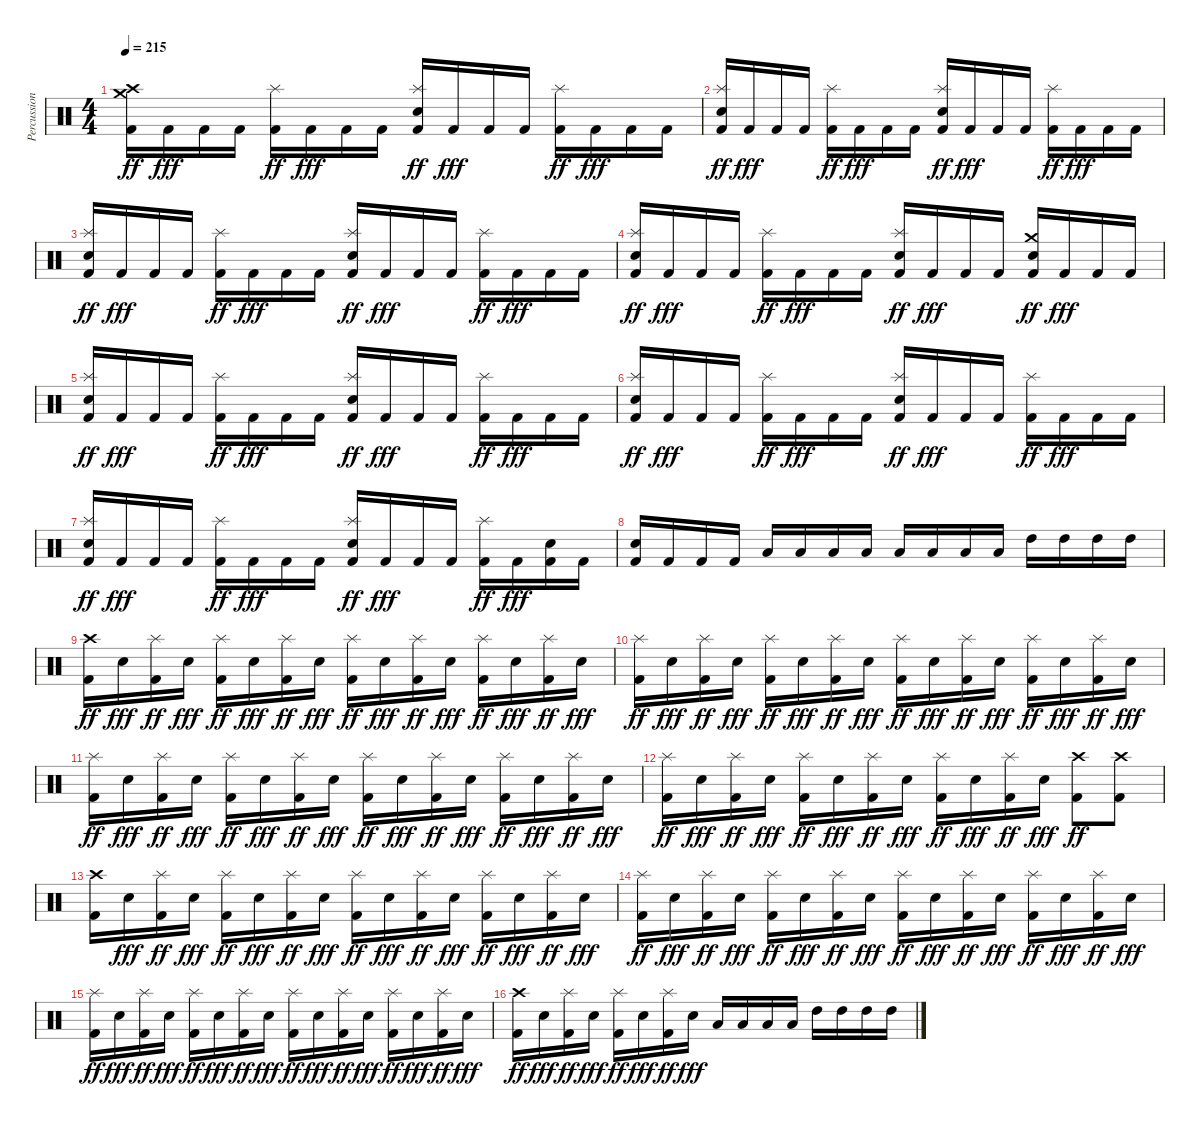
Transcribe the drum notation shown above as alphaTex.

\track ("Percussion" "Percussion") {instrument percussion}
\staff {score}
\articulation defaults
\ts (4 4)
\tempo 215
\clef neutral
\ks c
("Kick (hit) 2" "Crash high (hit)" "Crash medium (hit)").16{dy ff} "Kick (hit) 2".16{dy fff} "Kick (hit) 2".16 "Kick (hit) 2".16 ("Kick (hit) 2" "Splash (hit)").16{dy ff} "Kick (hit) 2".16{dy fff} "Kick (hit) 2".16 "Kick (hit) 2".16 ("Kick (hit) 2" "Electric Snare (hit)" "Splash (hit)").16{dy ff} "Kick (hit) 2".16{dy fff} "Kick (hit) 2".16 "Kick (hit) 2".16 ("Kick (hit) 2" "Splash (hit)").16{dy ff} "Kick (hit) 2".16{dy fff} "Kick (hit) 2".16 "Kick (hit) 2".16 |
("Kick (hit) 2" "Electric Snare (hit)" "Splash (hit)").16{dy ff} "Kick (hit) 2".16{dy fff} "Kick (hit) 2".16 "Kick (hit) 2".16 ("Kick (hit) 2" "Splash (hit)").16{dy ff} "Kick (hit) 2".16{dy fff} "Kick (hit) 2".16 "Kick (hit) 2".16 ("Kick (hit) 2" "Electric Snare (hit)" "Splash (hit)").16{dy ff} "Kick (hit) 2".16{dy fff} "Kick (hit) 2".16 "Kick (hit) 2".16 ("Kick (hit) 2" "Splash (hit)").16{dy ff} "Kick (hit) 2".16{dy fff} "Kick (hit) 2".16 "Kick (hit) 2".16 |
("Kick (hit) 2" "Electric Snare (hit)" "Splash (hit)").16{dy ff} "Kick (hit) 2".16{dy fff} "Kick (hit) 2".16 "Kick (hit) 2".16 ("Kick (hit) 2" "Splash (hit)").16{dy ff} "Kick (hit) 2".16{dy fff} "Kick (hit) 2".16 "Kick (hit) 2".16 ("Kick (hit) 2" "Electric Snare (hit)" "Splash (hit)").16{dy ff} "Kick (hit) 2".16{dy fff} "Kick (hit) 2".16 "Kick (hit) 2".16 ("Kick (hit) 2" "Splash (hit)").16{dy ff} "Kick (hit) 2".16{dy fff} "Kick (hit) 2".16 "Kick (hit) 2".16 |
("Kick (hit) 2" "Electric Snare (hit)" "Splash (hit)").16{dy ff} "Kick (hit) 2".16{dy fff} "Kick (hit) 2".16 "Kick (hit) 2".16 ("Kick (hit) 2" "Splash (hit)").16{dy ff} "Kick (hit) 2".16{dy fff} "Kick (hit) 2".16 "Kick (hit) 2".16 ("Kick (hit) 2" "Electric Snare (hit)" "Splash (hit)").16{dy ff} "Kick (hit) 2".16{dy fff} "Kick (hit) 2".16 "Kick (hit) 2".16 ("Kick (hit) 2" "Electric Snare (hit)" "Crash medium (hit)").16{dy ff} "Kick (hit) 2".16{dy fff} "Kick (hit) 2".16 "Kick (hit) 2".16 |
("Kick (hit) 2" "Electric Snare (hit)" "Splash (hit)").16{dy ff} "Kick (hit) 2".16{dy fff} "Kick (hit) 2".16 "Kick (hit) 2".16 ("Kick (hit) 2" "Splash (hit)").16{dy ff} "Kick (hit) 2".16{dy fff} "Kick (hit) 2".16 "Kick (hit) 2".16 ("Kick (hit) 2" "Electric Snare (hit)" "Splash (hit)").16{dy ff} "Kick (hit) 2".16{dy fff} "Kick (hit) 2".16 "Kick (hit) 2".16 ("Kick (hit) 2" "Splash (hit)").16{dy ff} "Kick (hit) 2".16{dy fff} "Kick (hit) 2".16 "Kick (hit) 2".16 |
("Kick (hit) 2" "Electric Snare (hit)" "Splash (hit)").16{dy ff} "Kick (hit) 2".16{dy fff} "Kick (hit) 2".16 "Kick (hit) 2".16 ("Kick (hit) 2" "Splash (hit)").16{dy ff} "Kick (hit) 2".16{dy fff} "Kick (hit) 2".16 "Kick (hit) 2".16 ("Kick (hit) 2" "Electric Snare (hit)" "Splash (hit)").16{dy ff} "Kick (hit) 2".16{dy fff} "Kick (hit) 2".16 "Kick (hit) 2".16 ("Kick (hit) 2" "Splash (hit)").16{dy ff} "Kick (hit) 2".16{dy fff} "Kick (hit) 2".16 "Kick (hit) 2".16 |
("Kick (hit) 2" "Electric Snare (hit)" "Splash (hit)").16{dy ff} "Kick (hit) 2".16{dy fff} "Kick (hit) 2".16 "Kick (hit) 2".16 ("Kick (hit) 2" "Splash (hit)").16{dy ff} "Kick (hit) 2".16{dy fff} "Kick (hit) 2".16 "Kick (hit) 2".16 ("Kick (hit) 2" "Electric Snare (hit)" "Splash (hit)").16{dy ff} "Kick (hit) 2".16{dy fff} "Kick (hit) 2".16 "Kick (hit) 2".16 ("Kick (hit) 2" "Splash (hit)").16{dy ff} "Kick (hit) 2".16{dy fff} ("Kick (hit) 2" "Electric Snare (hit)").16 "Kick (hit) 2".16 |
("Kick (hit) 2" "Electric Snare (hit)").16 "Kick (hit) 2".16 "Kick (hit) 2".16 "Kick (hit) 2".16 "Low Tom (hit)".16 "Low Tom (hit)".16 "Low Tom (hit)".16 "Low Tom (hit)".16 "Low Floor Tom (hit)".16 "Low Floor Tom (hit)".16 "Low Floor Tom (hit)".16 "Low Floor Tom (hit)".16 "High Tom (hit)".16 "High Tom (hit)".16 "High Tom (hit)".16 "High Tom (hit)".16 |
("Kick (hit) 2" "Crash high (hit)").16{dy ff} "Electric Snare (hit)".16{dy fff} ("Kick (hit) 2" "Splash (hit)").16{dy ff} "Electric Snare (hit)".16{dy fff} ("Kick (hit) 2" "Splash (hit)").16{dy ff} "Electric Snare (hit)".16{dy fff} ("Kick (hit) 2" "Splash (hit)").16{dy ff} "Electric Snare (hit)".16{dy fff} ("Kick (hit) 2" "Splash (hit)").16{dy ff} "Electric Snare (hit)".16{dy fff} ("Kick (hit) 2" "Splash (hit)").16{dy ff} "Electric Snare (hit)".16{dy fff} ("Kick (hit) 2" "Splash (hit)").16{dy ff} "Electric Snare (hit)".16{dy fff} ("Kick (hit) 2" "Splash (hit)").16{dy ff} "Electric Snare (hit)".16{dy fff} |
("Kick (hit) 2" "Splash (hit)").16{dy ff} "Electric Snare (hit)".16{dy fff} ("Kick (hit) 2" "Splash (hit)").16{dy ff} "Electric Snare (hit)".16{dy fff} ("Kick (hit) 2" "Splash (hit)").16{dy ff} "Electric Snare (hit)".16{dy fff} ("Kick (hit) 2" "Splash (hit)").16{dy ff} "Electric Snare (hit)".16{dy fff} ("Kick (hit) 2" "Splash (hit)").16{dy ff} "Electric Snare (hit)".16{dy fff} ("Kick (hit) 2" "Splash (hit)").16{dy ff} "Electric Snare (hit)".16{dy fff} ("Kick (hit) 2" "Splash (hit)").16{dy ff} "Electric Snare (hit)".16{dy fff} ("Kick (hit) 2" "Splash (hit)").16{dy ff} "Electric Snare (hit)".16{dy fff} |
("Kick (hit) 2" "Splash (hit)").16{dy ff} "Electric Snare (hit)".16{dy fff} ("Kick (hit) 2" "Splash (hit)").16{dy ff} "Electric Snare (hit)".16{dy fff} ("Kick (hit) 2" "Splash (hit)").16{dy ff} "Electric Snare (hit)".16{dy fff} ("Kick (hit) 2" "Splash (hit)").16{dy ff} "Electric Snare (hit)".16{dy fff} ("Kick (hit) 2" "Splash (hit)").16{dy ff} "Electric Snare (hit)".16{dy fff} ("Kick (hit) 2" "Splash (hit)").16{dy ff} "Electric Snare (hit)".16{dy fff} ("Kick (hit) 2" "Splash (hit)").16{dy ff} "Electric Snare (hit)".16{dy fff} ("Kick (hit) 2" "Splash (hit)").16{dy ff} "Electric Snare (hit)".16{dy fff} |
("Kick (hit) 2" "Splash (hit)").16{dy ff} "Electric Snare (hit)".16{dy fff} ("Kick (hit) 2" "Splash (hit)").16{dy ff} "Electric Snare (hit)".16{dy fff} ("Kick (hit) 2" "Splash (hit)").16{dy ff} "Electric Snare (hit)".16{dy fff} ("Kick (hit) 2" "Splash (hit)").16{dy ff} "Electric Snare (hit)".16{dy fff} ("Kick (hit) 2" "Splash (hit)").16{dy ff} "Electric Snare (hit)".16{dy fff} ("Kick (hit) 2" "Splash (hit)").16{dy ff} "Electric Snare (hit)".16{dy fff} ("Kick (hit) 2" "Crash high (hit)").8{dy ff} ("Kick (hit) 2" "Crash high (hit)").8 |
("Kick (hit) 2" "Crash high (hit)").16 "Electric Snare (hit)".16{dy fff} ("Kick (hit) 2" "Splash (hit)").16{dy ff} "Electric Snare (hit)".16{dy fff} ("Kick (hit) 2" "Splash (hit)").16{dy ff} "Electric Snare (hit)".16{dy fff} ("Kick (hit) 2" "Splash (hit)").16{dy ff} "Electric Snare (hit)".16{dy fff} ("Kick (hit) 2" "Splash (hit)").16{dy ff} "Electric Snare (hit)".16{dy fff} ("Kick (hit) 2" "Splash (hit)").16{dy ff} "Electric Snare (hit)".16{dy fff} ("Kick (hit) 2" "Splash (hit)").16{dy ff} "Electric Snare (hit)".16{dy fff} ("Kick (hit) 2" "Splash (hit)").16{dy ff} "Electric Snare (hit)".16{dy fff} |
("Kick (hit) 2" "Splash (hit)").16{dy ff} "Electric Snare (hit)".16{dy fff} ("Kick (hit) 2" "Splash (hit)").16{dy ff} "Electric Snare (hit)".16{dy fff} ("Kick (hit) 2" "Splash (hit)").16{dy ff} "Electric Snare (hit)".16{dy fff} ("Kick (hit) 2" "Splash (hit)").16{dy ff} "Electric Snare (hit)".16{dy fff} ("Kick (hit) 2" "Splash (hit)").16{dy ff} "Electric Snare (hit)".16{dy fff} ("Kick (hit) 2" "Splash (hit)").16{dy ff} "Electric Snare (hit)".16{dy fff} ("Kick (hit) 2" "Splash (hit)").16{dy ff} "Electric Snare (hit)".16{dy fff} ("Kick (hit) 2" "Splash (hit)").16{dy ff} "Electric Snare (hit)".16{dy fff} |
("Kick (hit) 2" "Splash (hit)").16{dy ff} "Electric Snare (hit)".16{dy fff} ("Kick (hit) 2" "Splash (hit)").16{dy ff} "Electric Snare (hit)".16{dy fff} ("Kick (hit) 2" "Splash (hit)").16{dy ff} "Electric Snare (hit)".16{dy fff} ("Kick (hit) 2" "Splash (hit)").16{dy ff} "Electric Snare (hit)".16{dy fff} ("Kick (hit) 2" "Splash (hit)").16{dy ff} "Electric Snare (hit)".16{dy fff} ("Kick (hit) 2" "Splash (hit)").16{dy ff} "Electric Snare (hit)".16{dy fff} ("Kick (hit) 2" "Splash (hit)").16{dy ff} "Electric Snare (hit)".16{dy fff} ("Kick (hit) 2" "Splash (hit)").16{dy ff} "Electric Snare (hit)".16{dy fff} |
("Kick (hit) 2" "Crash high (hit)").16{dy ff} "Electric Snare (hit)".16{dy fff} ("Kick (hit) 2" "Splash (hit)").16{dy ff} "Electric Snare (hit)".16{dy fff} ("Kick (hit) 2" "Splash (hit)").16{dy ff} "Electric Snare (hit)".16{dy fff} ("Kick (hit) 2" "Splash (hit)").16{dy ff} "Electric Snare (hit)".16{dy fff} "Low Tom (hit)".16 "Low Tom (hit)".16 "Low Tom (hit)".16 "Low Tom (hit)".16 "High Tom (hit)".16 "High Tom (hit)".16 "High Tom (hit)".16 "High Tom (hit)".16
